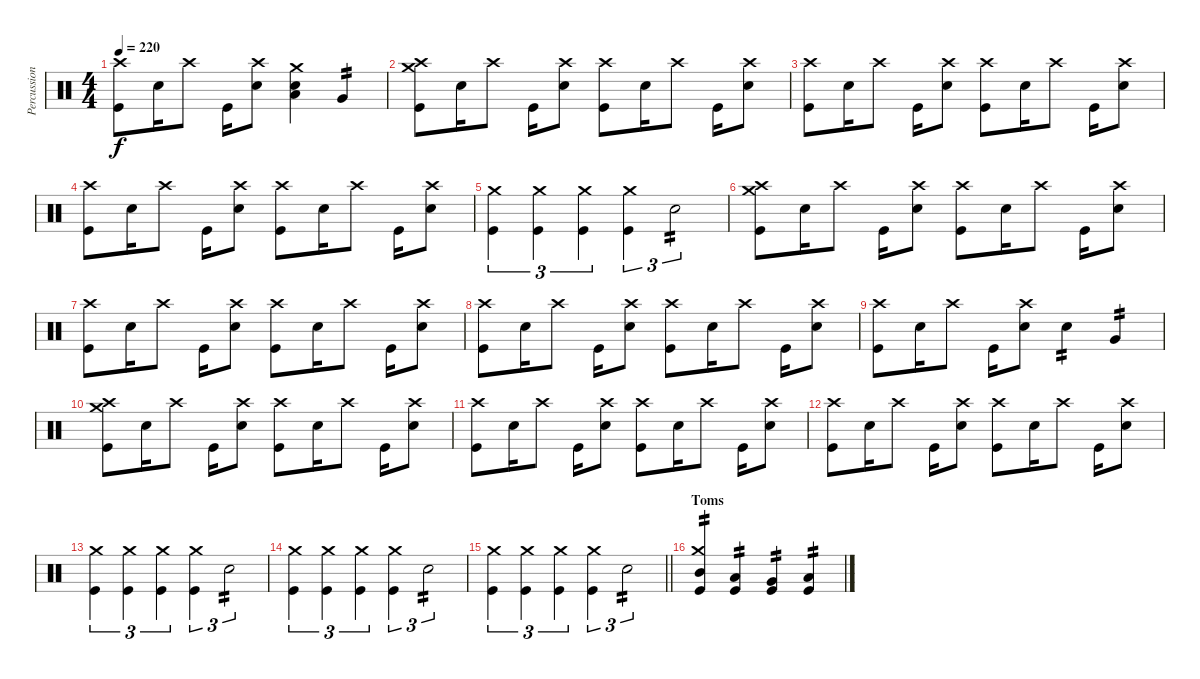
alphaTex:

\track ("Percussion" "Percussion") {instrument percussion}
\staff {score}
\articulation defaults
\ts (4 4)
\tempo 220
\clef neutral
\ks c
("Kick (hit)" "Crash high (hit)").8{dy f} "Snare (hit) 2".16 "Crash high (hit)".8 "Kick (hit)".16 ("Snare (hit) 2" "Crash high (hit)").8 ("Low Tom (hit)" "Snare (hit) 2" "Crash medium (hit)").4 "Very Low Tom (hit)".4{tp 2} |
("Crash medium (hit)" "Kick (hit)" "Crash high (hit)").8 "Snare (hit) 2".16 "Crash high (hit)".8 "Kick (hit)".16 ("Snare (hit) 2" "Crash high (hit)").8 ("Kick (hit)" "Crash high (hit)").8 "Snare (hit) 2".16 "Crash high (hit)".8 "Kick (hit)".16 ("Snare (hit) 2" "Crash high (hit)").8 |
("Kick (hit)" "Crash high (hit)").8 "Snare (hit) 2".16 "Crash high (hit)".8 "Kick (hit)".16 ("Snare (hit) 2" "Crash high (hit)").8 ("Kick (hit)" "Crash high (hit)").8 "Snare (hit) 2".16 "Crash high (hit)".8 "Kick (hit)".16 ("Snare (hit) 2" "Crash high (hit)").8 |
("Kick (hit)" "Crash high (hit)").8 "Snare (hit) 2".16 "Crash high (hit)".8 "Kick (hit)".16 ("Snare (hit) 2" "Crash high (hit)").8 ("Kick (hit)" "Crash high (hit)").8 "Snare (hit) 2".16 "Crash high (hit)".8 "Kick (hit)".16 ("Snare (hit) 2" "Crash high (hit)").8 |
("Crash medium (hit)" "Kick (hit)").4{tu (3 2)} ("Crash medium (hit)" "Kick (hit)").4{tu (3 2)} ("Crash medium (hit)" "Kick (hit)").4{tu (3 2)} ("Crash medium (hit)" "Kick (hit)").4{tu (3 2)} "Snare (hit) 2".2{tu (3 2) tp 2} |
("Crash medium (hit)" "Kick (hit)" "Crash high (hit)").8 "Snare (hit) 2".16 "Crash high (hit)".8 "Kick (hit)".16 ("Snare (hit) 2" "Crash high (hit)").8 ("Kick (hit)" "Crash high (hit)").8 "Snare (hit) 2".16 "Crash high (hit)".8 "Kick (hit)".16 ("Snare (hit) 2" "Crash high (hit)").8 |
("Kick (hit)" "Crash high (hit)").8 "Snare (hit) 2".16 "Crash high (hit)".8 "Kick (hit)".16 ("Snare (hit) 2" "Crash high (hit)").8 ("Kick (hit)" "Crash high (hit)").8 "Snare (hit) 2".16 "Crash high (hit)".8 "Kick (hit)".16 ("Snare (hit) 2" "Crash high (hit)").8 |
("Kick (hit)" "Crash high (hit)").8 "Snare (hit) 2".16 "Crash high (hit)".8 "Kick (hit)".16 ("Snare (hit) 2" "Crash high (hit)").8 ("Kick (hit)" "Crash high (hit)").8 "Snare (hit) 2".16 "Crash high (hit)".8 "Kick (hit)".16 ("Snare (hit) 2" "Crash high (hit)").8 |
("Kick (hit)" "Crash high (hit)").8 "Snare (hit) 2".16 "Crash high (hit)".8 "Kick (hit)".16 ("Snare (hit) 2" "Crash high (hit)").8 "Snare (hit) 2".4{tp 2} "Very Low Tom (hit)".4{tp 2} |
("Crash medium (hit)" "Kick (hit)" "Crash high (hit)").8 "Snare (hit) 2".16 "Crash high (hit)".8 "Kick (hit)".16 ("Snare (hit) 2" "Crash high (hit)").8 ("Kick (hit)" "Crash high (hit)").8 "Snare (hit) 2".16 "Crash high (hit)".8 "Kick (hit)".16 ("Snare (hit) 2" "Crash high (hit)").8 |
("Kick (hit)" "Crash high (hit)").8 "Snare (hit) 2".16 "Crash high (hit)".8 "Kick (hit)".16 ("Snare (hit) 2" "Crash high (hit)").8 ("Kick (hit)" "Crash high (hit)").8 "Snare (hit) 2".16 "Crash high (hit)".8 "Kick (hit)".16 ("Snare (hit) 2" "Crash high (hit)").8 |
("Kick (hit)" "Crash high (hit)").8 "Snare (hit) 2".16 "Crash high (hit)".8 "Kick (hit)".16 ("Snare (hit) 2" "Crash high (hit)").8 ("Kick (hit)" "Crash high (hit)").8 "Snare (hit) 2".16 "Crash high (hit)".8 "Kick (hit)".16 ("Snare (hit) 2" "Crash high (hit)").8 |
("Crash medium (hit)" "Kick (hit)").4{tu (3 2)} ("Crash medium (hit)" "Kick (hit)").4{tu (3 2)} ("Crash medium (hit)" "Kick (hit)").4{tu (3 2)} ("Crash medium (hit)" "Kick (hit)").4{tu (3 2)} "Snare (hit) 2".2{tu (3 2) tp 2} |
("Crash medium (hit)" "Kick (hit)").4{tu (3 2)} ("Crash medium (hit)" "Kick (hit)").4{tu (3 2)} ("Crash medium (hit)" "Kick (hit)").4{tu (3 2)} ("Crash medium (hit)" "Kick (hit)").4{tu (3 2)} "Snare (hit) 2".2{tu (3 2) tp 2} |
\barLineRight lightlight
("Crash medium (hit)" "Kick (hit)").4{tu (3 2)} ("Crash medium (hit)" "Kick (hit)").4{tu (3 2)} ("Crash medium (hit)" "Kick (hit)").4{tu (3 2)} ("Crash medium (hit)" "Kick (hit)").4{tu (3 2)} "Snare (hit) 2".2{tu (3 2) tp 2} |
\section ("" "Toms")
("Crash medium (hit)" "Mid Tom (hit)" "Kick (hit)").4{tp 2} ("Low Tom (hit)" "Kick (hit)").4{tp 2} ("Very Low Tom (hit)" "Kick (hit)").4{tp 2} ("Low Floor Tom (hit)" "Kick (hit)").4{tp 2}
